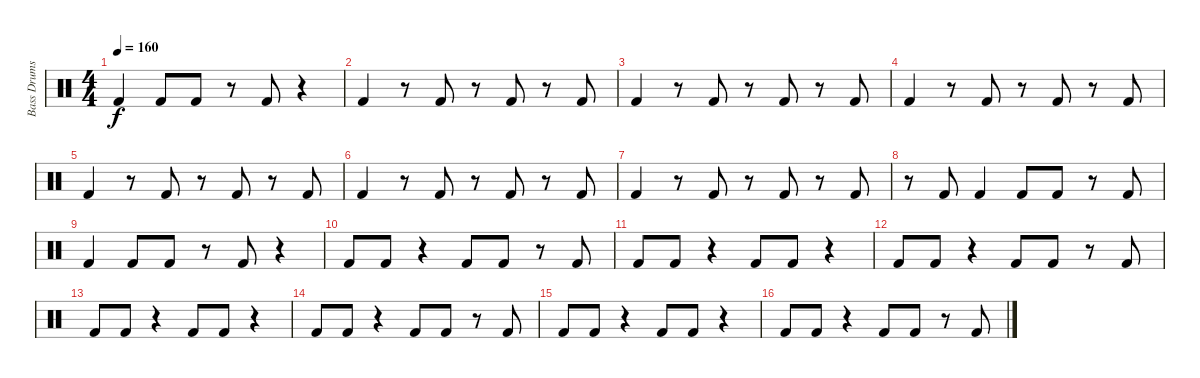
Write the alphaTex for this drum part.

\track ("Bass Drums" "Bass Drums") {instrument percussion}
\staff {score}
\articulation defaults
\ts (4 4)
\tempo 160
\clef neutral
\ks c "Kick (hit) 2".4{dy f} "Kick (hit) 2".8 "Kick (hit) 2".8
r.8 "Kick (hit) 2".8 r.4 |
"Kick (hit) 2".4 r.8 "Kick (hit) 2".8 r.8 "Kick (hit) 2".8 r.8 "Kick (hit) 2".8 |
"Kick (hit) 2".4 r.8 "Kick (hit) 2".8 r.8 "Kick (hit) 2".8 r.8 "Kick (hit) 2".8 |
"Kick (hit) 2".4 r.8 "Kick (hit) 2".8 r.8 "Kick (hit) 2".8 r.8 "Kick (hit) 2".8 |
"Kick (hit) 2".4 r.8 "Kick (hit) 2".8 r.8 "Kick (hit) 2".8 r.8 "Kick (hit) 2".8 |
"Kick (hit) 2".4 r.8 "Kick (hit) 2".8 r.8 "Kick (hit) 2".8 r.8 "Kick (hit) 2".8 |
"Kick (hit) 2".4 r.8 "Kick (hit) 2".8 r.8 "Kick (hit) 2".8 r.8 "Kick (hit) 2".8 |
r.8 "Kick (hit) 2".8 "Kick (hit) 2".4 "Kick (hit) 2".8 "Kick (hit) 2".8 r.8 "Kick (hit) 2".8 |
"Kick (hit) 2".4 "Kick (hit) 2".8 "Kick (hit) 2".8 r.8 "Kick (hit) 2".8 r.4 |
"Kick (hit) 2".8 "Kick (hit) 2".8 r.4 "Kick (hit) 2".8 "Kick (hit) 2".8 r.8 "Kick (hit) 2".8 |
"Kick (hit) 2".8 "Kick (hit) 2".8 r.4 "Kick (hit) 2".8 "Kick (hit) 2".8 r.4 |
"Kick (hit) 2".8 "Kick (hit) 2".8 r.4 "Kick (hit) 2".8 "Kick (hit) 2".8 r.8 "Kick (hit) 2".8 |
"Kick (hit) 2".8 "Kick (hit) 2".8 r.4 "Kick (hit) 2".8 "Kick (hit) 2".8 r.4 |
"Kick (hit) 2".8 "Kick (hit) 2".8 r.4 "Kick (hit) 2".8 "Kick (hit) 2".8 r.8 "Kick (hit) 2".8 |
"Kick (hit) 2".8 "Kick (hit) 2".8 r.4 "Kick (hit) 2".8 "Kick (hit) 2".8 r.4 |
"Kick (hit) 2".8 "Kick (hit) 2".8 r.4 "Kick (hit) 2".8 "Kick (hit) 2".8 r.8 "Kick (hit) 2".8
